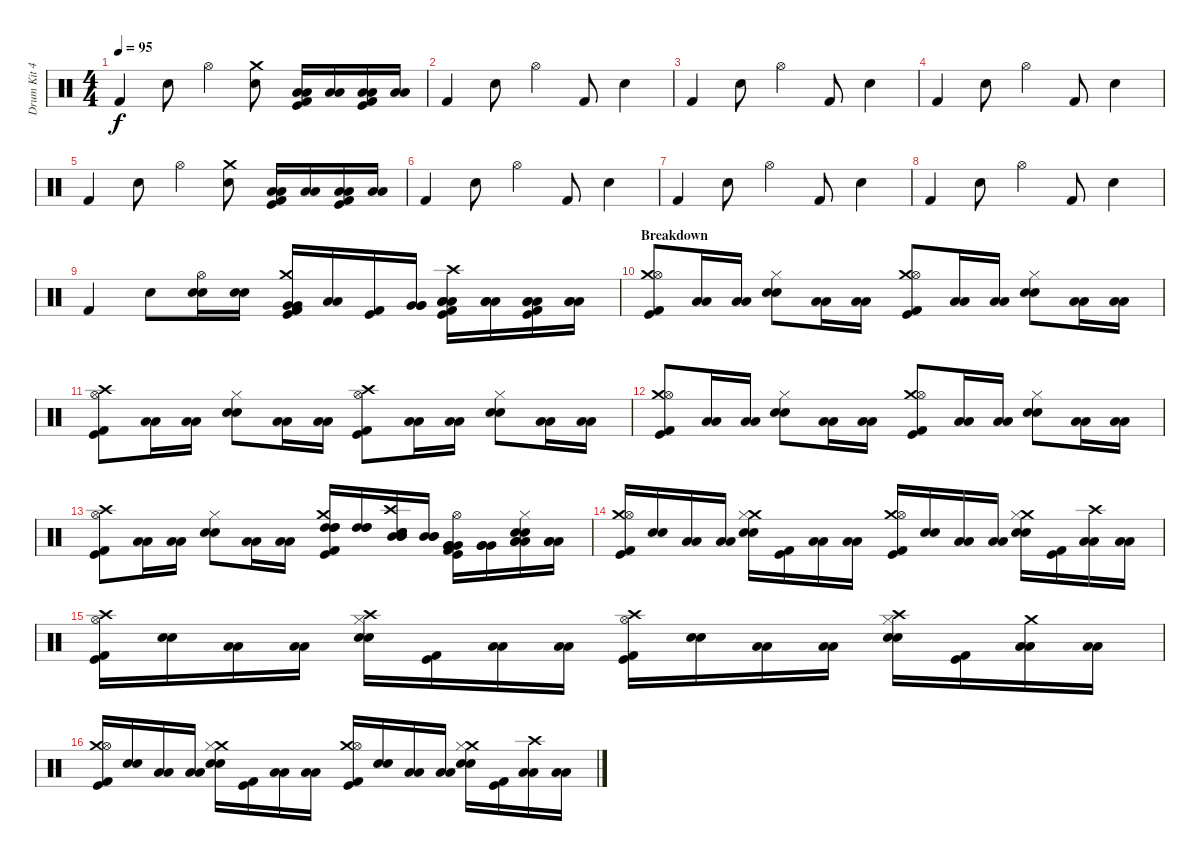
\track ("Drum Kit 42" "Drum Kit 4") {instrument percussion}
\staff {score}
\articulation defaults
\ts (4 4)
\tempo 95
\clef neutral
\ks c "Kick (hit) 2".4{dy f} "Snare (hit) 2".8 "Hi-Hat (open)".4
("Crash medium (hit)" "Snare (hit) 2").8 ("Kick (hit)" "Low Tom (hit)" "Low Tom (hit)" "Kick (hit) 2").16 ("Low Tom (hit)" "Low Tom (hit)").16 ("Kick (hit)" "Low Floor Tom (hit)" "Low Floor Tom (hit)" "Kick (hit) 2").16 ("Low Floor Tom (hit)" "Low Floor Tom (hit)").16 |
"Kick (hit) 2".4 "Snare (hit) 2".8 "Hi-Hat (open)".4 "Kick (hit) 2".8 "Snare (hit) 2".4 |
"Kick (hit) 2".4 "Snare (hit) 2".8 "Hi-Hat (open)".4 "Kick (hit) 2".8 "Snare (hit) 2".4 |
"Kick (hit) 2".4 "Snare (hit) 2".8 "Hi-Hat (open)".4 "Kick (hit) 2".8 "Snare (hit) 2".4 |
"Kick (hit) 2".4 "Snare (hit) 2".8 "Hi-Hat (open)".4 ("Crash medium (hit)" "Snare (hit) 2").8 ("Kick (hit)" "Low Tom (hit)" "Low Tom (hit)" "Kick (hit) 2").16 ("Low Tom (hit)" "Low Tom (hit)").16 ("Kick (hit)" "Low Floor Tom (hit)" "Low Floor Tom (hit)" "Kick (hit) 2").16 ("Low Floor Tom (hit)" "Low Floor Tom (hit)").16 |
"Kick (hit) 2".4 "Snare (hit) 2".8 "Hi-Hat (open)".4 "Kick (hit) 2".8 "Snare (hit) 2".4 |
"Kick (hit) 2".4 "Snare (hit) 2".8 "Hi-Hat (open)".4 "Kick (hit) 2".8 "Snare (hit) 2".4 |
"Kick (hit) 2".4 "Snare (hit) 2".8 "Hi-Hat (open)".4 "Kick (hit) 2".8 "Snare (hit) 2".4 |
"Kick (hit) 2".4 "Snare (hit) 2".8 ("Hi-Hat (open)" "Snare (hit) 2" "Snare (hit) 2").16 ("Snare (hit) 2" "Snare (hit) 2").16 ("Crash medium (hit)" "Very Low Tom (hit)" "Very Low Tom (hit)" "Kick (hit)" "Kick (hit) 2").16 ("Low Tom (hit)" "Low Tom (hit)").16 ("Kick (hit)" "Kick (hit) 2").16 ("Very Low Tom (hit)" "Very Low Tom (hit)" "Very Low Tom (hit)").16 ("Crash high (hit)" "Kick (hit) 2" "Kick (hit)" "Low Tom (hit)" "Low Tom (hit)" "Low Tom (hit)").16 ("Low Tom (hit)" "Low Tom (hit)" "Low Tom (hit)").16 ("Kick (hit) 2" "Kick (hit)" "Low Floor Tom (hit)" "Low Floor Tom (hit)" "Low Floor Tom (hit)").16 ("Low Floor Tom (hit)" "Low Floor Tom (hit)" "Low Floor Tom (hit)").16 |
\section ("" "Breakdown")
("Crash medium (hit)" "Hi-Hat (open)" "Kick (hit)" "Kick (hit) 2").8 ("Low Tom (hit)" "Low Tom (hit)").16 ("Low Tom (hit)" "Low Tom (hit)").16 ("Hi-Hat (closed)" "Snare (hit) 2" "Snare (hit) 2").8 ("Low Floor Tom (hit)" "Low Floor Tom (hit)").16 ("Low Floor Tom (hit)" "Low Floor Tom (hit)").16 ("Crash medium (hit)" "Hi-Hat (open)" "Kick (hit)" "Kick (hit) 2").8 ("Low Tom (hit)" "Low Tom (hit)").16 ("Low Tom (hit)" "Low Tom (hit)").16 ("Hi-Hat (closed)" "Snare (hit) 2" "Snare (hit) 2").8 ("Low Floor Tom (hit)" "Low Floor Tom (hit)").16 ("Low Floor Tom (hit)" "Low Floor Tom (hit)").16 |
("Crash high (hit)" "Hi-Hat (open)" "Kick (hit)" "Kick (hit) 2").8 ("Low Tom (hit)" "Low Tom (hit)").16 ("Low Tom (hit)" "Low Tom (hit)").16 ("Hi-Hat (closed)" "Snare (hit) 2" "Snare (hit) 2").8 ("Low Floor Tom (hit)" "Low Floor Tom (hit)").16 ("Low Floor Tom (hit)" "Low Floor Tom (hit)").16 ("Crash high (hit)" "Hi-Hat (open)" "Kick (hit)" "Kick (hit) 2").8 ("Low Tom (hit)" "Low Tom (hit)").16 ("Low Tom (hit)" "Low Tom (hit)").16 ("Hi-Hat (closed)" "Snare (hit) 2" "Snare (hit) 2").8 ("Low Floor Tom (hit)" "Low Floor Tom (hit)").16 ("Low Floor Tom (hit)" "Low Floor Tom (hit)").16 |
("Crash medium (hit)" "Hi-Hat (open)" "Kick (hit)" "Kick (hit) 2").8 ("Low Tom (hit)" "Low Tom (hit)").16 ("Low Tom (hit)" "Low Tom (hit)").16 ("Hi-Hat (closed)" "Snare (hit) 2" "Snare (hit) 2").8 ("Low Floor Tom (hit)" "Low Floor Tom (hit)").16 ("Low Floor Tom (hit)" "Low Floor Tom (hit)").16 ("Crash medium (hit)" "Hi-Hat (open)" "Kick (hit)" "Kick (hit) 2").8 ("Low Tom (hit)" "Low Tom (hit)").16 ("Low Tom (hit)" "Low Tom (hit)").16 ("Hi-Hat (closed)" "Snare (hit) 2" "Snare (hit) 2").8 ("Low Floor Tom (hit)" "Low Floor Tom (hit)").16 ("Low Floor Tom (hit)" "Low Floor Tom (hit)").16 |
("Crash high (hit)" "Hi-Hat (open)" "Kick (hit)" "Kick (hit) 2").8 ("Low Tom (hit)" "Low Tom (hit)").16 ("Low Tom (hit)" "Low Tom (hit)").16 ("Hi-Hat (closed)" "Snare (hit) 2" "Snare (hit) 2").8 ("Low Floor Tom (hit)" "Low Floor Tom (hit)").16 ("Low Floor Tom (hit)" "Low Floor Tom (hit)").16 ("Kick (hit)" "Kick (hit) 2" "Crash medium (hit)" "High Tom (hit)" "High Tom (hit)" "High Tom (hit)").16{volume 16} ("High Tom (hit)" "High Tom (hit)" "High Tom (hit)").16 ("Snare (hit) 2" "Snare (hit) 2" "Crash high (hit)" "Mid Tom (hit)" "Mid Tom (hit)" "Mid Tom (hit)").16 ("Mid Tom (hit)" "Mid Tom (hit)" "Mid Tom (hit)").16 ("Kick (hit)" "Kick (hit) 2" "Hi-Hat (open)" "Very Low Tom (hit)" "Very Low Tom (hit)" "Very Low Tom (hit)").16 ("Very Low Tom (hit)" "Very Low Tom (hit)" "Very Low Tom (hit)").16 ("Snare (hit) 2" "Snare (hit) 2" "Hi-Hat (closed)" "Low Floor Tom (hit)" "Low Floor Tom (hit)" "Low Floor Tom (hit)").16 ("Low Floor Tom (hit)" "Low Floor Tom (hit)" "Low Floor Tom (hit)").16 |
("Crash medium (hit)" "Hi-Hat (open)" "Kick (hit)" "Kick (hit) 2").16 ("Snare (hit) 2" "Snare (hit) 2").16 ("Low Tom (hit)" "Low Tom (hit)").16 ("Low Tom (hit)" "Low Tom (hit)").16 ("Crash medium (hit)" "Hi-Hat (closed)" "Snare (hit) 2" "Snare (hit) 2").16 ("Kick (hit)" "Kick (hit) 2").16 ("Low Floor Tom (hit)" "Low Floor Tom (hit)").16 ("Low Floor Tom (hit)" "Low Floor Tom (hit)").16 ("Crash medium (hit)" "Hi-Hat (open)" "Kick (hit)" "Kick (hit) 2").16 ("Snare (hit) 2" "Snare (hit) 2").16 ("Low Tom (hit)" "Low Tom (hit)").16 ("Low Tom (hit)" "Low Tom (hit)").16 ("Crash medium (hit)" "Hi-Hat (closed)" "Snare (hit) 2" "Snare (hit) 2").16 ("Kick (hit)" "Kick (hit) 2").16 ("Crash high (hit)" "Low Floor Tom (hit)" "Low Floor Tom (hit)").16 ("Low Floor Tom (hit)" "Low Floor Tom (hit)").16 |
("Crash high (hit)" "Hi-Hat (open)" "Kick (hit)" "Kick (hit) 2").16 ("Snare (hit) 2" "Snare (hit) 2").16 ("Low Tom (hit)" "Low Tom (hit)").16 ("Low Tom (hit)" "Low Tom (hit)").16 ("Crash high (hit)" "Hi-Hat (closed)" "Snare (hit) 2" "Snare (hit) 2").16 ("Kick (hit)" "Kick (hit) 2").16 ("Low Floor Tom (hit)" "Low Floor Tom (hit)").16 ("Low Floor Tom (hit)" "Low Floor Tom (hit)").16 ("Crash high (hit)" "Hi-Hat (open)" "Kick (hit)" "Kick (hit) 2").16 ("Snare (hit) 2" "Snare (hit) 2").16 ("Low Tom (hit)" "Low Tom (hit)").16 ("Low Tom (hit)" "Low Tom (hit)").16 ("Crash high (hit)" "Hi-Hat (closed)" "Snare (hit) 2" "Snare (hit) 2").16 ("Kick (hit)" "Kick (hit) 2").16 ("Crash medium (hit)" "Low Floor Tom (hit)" "Low Floor Tom (hit)").16 ("Low Floor Tom (hit)" "Low Floor Tom (hit)").16 |
("Crash medium (hit)" "Hi-Hat (open)" "Kick (hit)" "Kick (hit) 2").16 ("Snare (hit) 2" "Snare (hit) 2").16 ("Low Tom (hit)" "Low Tom (hit)").16 ("Low Tom (hit)" "Low Tom (hit)").16 ("Crash medium (hit)" "Hi-Hat (closed)" "Snare (hit) 2" "Snare (hit) 2").16 ("Kick (hit)" "Kick (hit) 2").16 ("Low Floor Tom (hit)" "Low Floor Tom (hit)").16 ("Low Floor Tom (hit)" "Low Floor Tom (hit)").16 ("Crash medium (hit)" "Hi-Hat (open)" "Kick (hit)" "Kick (hit) 2").16 ("Snare (hit) 2" "Snare (hit) 2").16 ("Low Tom (hit)" "Low Tom (hit)").16 ("Low Tom (hit)" "Low Tom (hit)").16 ("Crash medium (hit)" "Hi-Hat (closed)" "Snare (hit) 2" "Snare (hit) 2").16 ("Kick (hit)" "Kick (hit) 2").16 ("Crash high (hit)" "Low Floor Tom (hit)" "Low Floor Tom (hit)").16 ("Low Floor Tom (hit)" "Low Floor Tom (hit)").16
